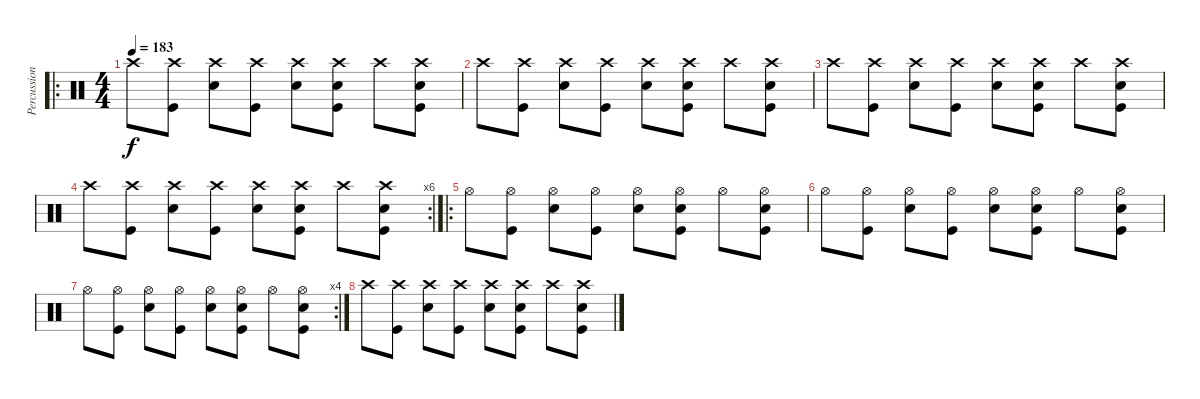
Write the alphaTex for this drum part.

\track ("Percussion" "Percussion") {instrument percussion}
\staff
\articulation defaults
\ro
\ts (4 4)
\tempo 183
\clef neutral
\ks c "Crash high (hit)".8{dy f}
("Crash high (hit)" "Kick (hit)").8 ("Crash high (hit)" "Snare (hit) 2").8 ("Crash high (hit)" "Kick (hit)").8 ("Crash high (hit)" "Snare (hit) 2").8 ("Crash high (hit)" "Snare (hit) 2" "Kick (hit)").8 "Crash high (hit)".8 ("Crash high (hit)" "Snare (hit) 2" "Kick (hit)").8 |
"Crash high (hit)".8 ("Crash high (hit)" "Kick (hit)").8 ("Crash high (hit)" "Snare (hit) 2").8 ("Crash high (hit)" "Kick (hit)").8 ("Crash high (hit)" "Snare (hit) 2").8 ("Crash high (hit)" "Snare (hit) 2" "Kick (hit)").8 "Crash high (hit)".8 ("Crash high (hit)" "Snare (hit) 2" "Kick (hit)").8 |
"Crash high (hit)".8 ("Crash high (hit)" "Kick (hit)").8 ("Crash high (hit)" "Snare (hit) 2").8 ("Crash high (hit)" "Kick (hit)").8 ("Crash high (hit)" "Snare (hit) 2").8 ("Crash high (hit)" "Snare (hit) 2" "Kick (hit)").8 "Crash high (hit)".8 ("Crash high (hit)" "Snare (hit) 2" "Kick (hit)").8 |
\rc 6 "Crash high (hit)".8
("Crash high (hit)" "Kick (hit)").8 ("Crash high (hit)" "Snare (hit) 2").8 ("Crash high (hit)" "Kick (hit)").8 ("Crash high (hit)" "Snare (hit) 2").8 ("Crash high (hit)" "Snare (hit) 2" "Kick (hit)").8 "Crash high (hit)".8 ("Crash high (hit)" "Snare (hit) 2" "Kick (hit)").8 |
\ro "Hi-Hat (open)".8
("Hi-Hat (open)" "Kick (hit)").8 ("Hi-Hat (open)" "Snare (hit) 2").8 ("Hi-Hat (open)" "Kick (hit)").8 ("Hi-Hat (open)" "Snare (hit) 2").8 ("Hi-Hat (open)" "Snare (hit) 2" "Kick (hit)").8 "Hi-Hat (open)".8 ("Hi-Hat (open)" "Snare (hit) 2" "Kick (hit)").8 |
"Hi-Hat (open)".8 ("Hi-Hat (open)" "Kick (hit)").8 ("Hi-Hat (open)" "Snare (hit) 2").8 ("Hi-Hat (open)" "Kick (hit)").8 ("Hi-Hat (open)" "Snare (hit) 2").8 ("Hi-Hat (open)" "Snare (hit) 2" "Kick (hit)").8 "Hi-Hat (open)".8 ("Hi-Hat (open)" "Snare (hit) 2" "Kick (hit)").8 |
\rc 4 "Hi-Hat (open)".8
("Hi-Hat (open)" "Kick (hit)").8 ("Hi-Hat (open)" "Snare (hit) 2").8 ("Hi-Hat (open)" "Kick (hit)").8 ("Hi-Hat (open)" "Snare (hit) 2").8 ("Hi-Hat (open)" "Snare (hit) 2" "Kick (hit)").8 "Hi-Hat (open)".8 ("Hi-Hat (open)" "Snare (hit) 2" "Kick (hit)").8 |
"Crash high (hit)".8 ("Crash high (hit)" "Kick (hit)").8 ("Crash high (hit)" "Snare (hit) 2").8 ("Crash high (hit)" "Kick (hit)").8 ("Crash high (hit)" "Snare (hit) 2").8 ("Crash high (hit)" "Snare (hit) 2" "Kick (hit)").8 "Crash high (hit)".8 ("Crash high (hit)" "Snare (hit) 2" "Kick (hit)").8
